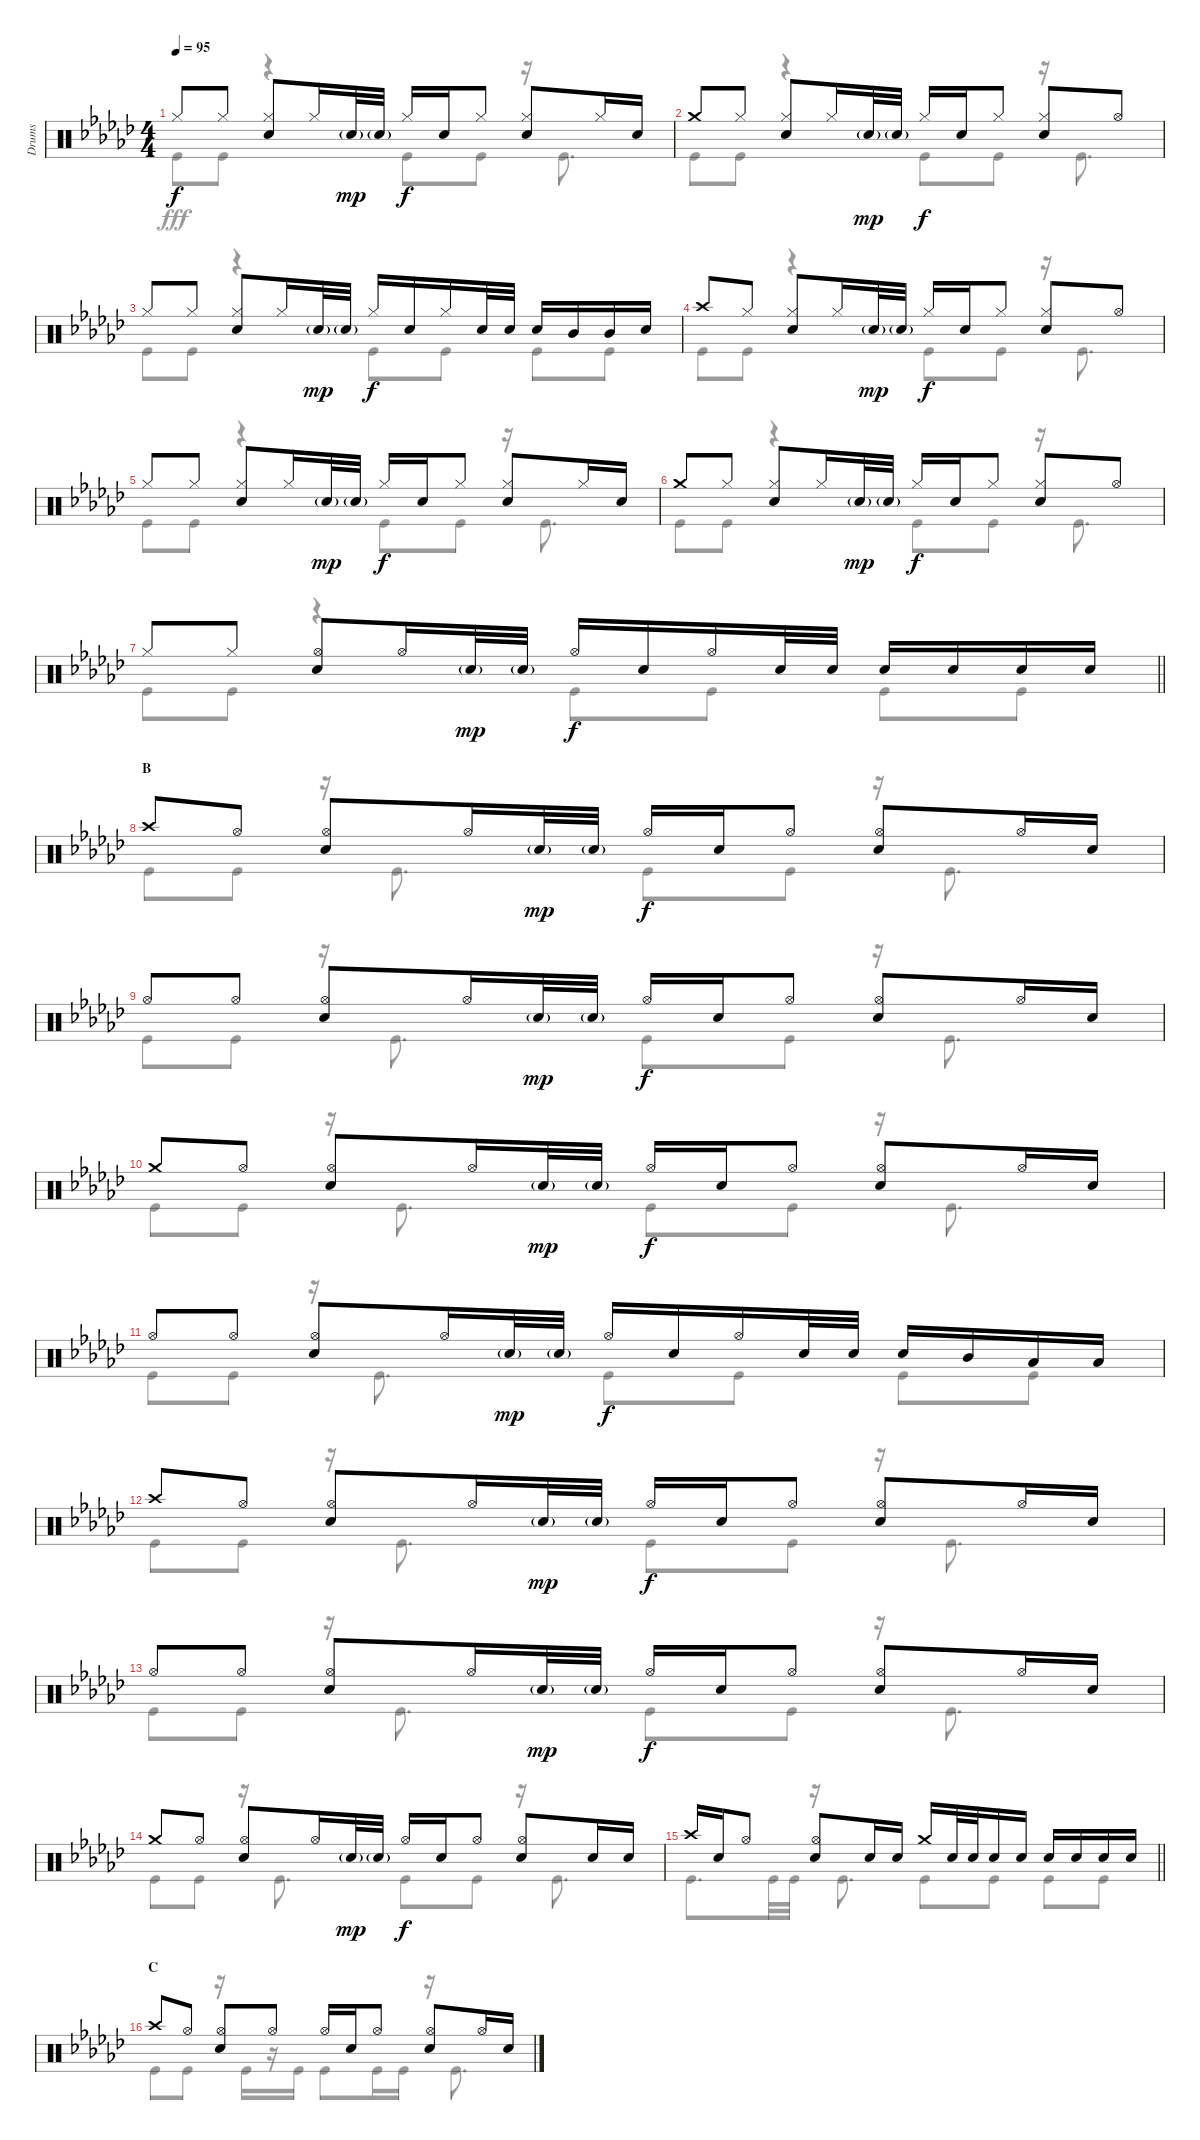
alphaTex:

\track ("Drums" "Drums") {instrument percussion}
\staff {score}
\articulation defaults
\voice
\ts (4 4)
\tempo 95
\clef neutral
\ks gb "Hi-Hat (closed)".8{dy f} "Hi-Hat (closed)".8
("Hi-Hat (closed)" "Snare (hit) 2").8 "Hi-Hat (closed)".16 "Snare (hit) 2"{g}.32{dy mp} "Snare (hit) 2"{g}.32 "Hi-Hat (closed)".16{dy f} "Snare (hit) 2".16 "Hi-Hat (closed)".8 ("Hi-Hat (closed)" "Snare (hit) 2").8 "Hi-Hat (closed)".16 "Snare (hit) 2".16 |
"Crash medium (hit)".8 "Hi-Hat (closed)".8 ("Hi-Hat (closed)" "Snare (hit) 2").8 "Hi-Hat (closed)".16 "Snare (hit) 2"{g}.32{dy mp} "Snare (hit) 2"{g}.32 "Hi-Hat (closed)".16{dy f} "Snare (hit) 2".16 "Hi-Hat (closed)".8 ("Hi-Hat (closed)" "Snare (hit) 2").8 "Hi-Hat (open)".8 |
"Hi-Hat (closed)".8 "Hi-Hat (closed)".8 ("Hi-Hat (closed)" "Snare (hit) 2").8 "Hi-Hat (closed)".16 "Snare (hit) 2"{g}.32{dy mp} "Snare (hit) 2"{g}.32 "Hi-Hat (closed)".16{dy f} "Snare (hit) 2".16 "Hi-Hat (closed)".16 "Snare (hit) 2".32 "Snare (hit) 2".32 "Snare (hit) 2".16 "Mid Tom (hit)".16 "Mid Tom (hit)".16 "Snare (hit) 2".16 |
"Crash high (hit)".8 "Hi-Hat (closed)".8 ("Hi-Hat (closed)" "Snare (hit) 2").8 "Hi-Hat (closed)".16 "Snare (hit) 2"{g}.32{dy mp} "Snare (hit) 2"{g}.32 "Hi-Hat (closed)".16{dy f} "Snare (hit) 2".16 "Hi-Hat (closed)".8 ("Hi-Hat (closed)" "Snare (hit) 2").8 "Hi-Hat (open)".8 |
"Hi-Hat (closed)".8 "Hi-Hat (closed)".8 ("Hi-Hat (closed)" "Snare (hit) 2").8 "Hi-Hat (closed)".16 "Snare (hit) 2"{g}.32{dy mp} "Snare (hit) 2"{g}.32 "Hi-Hat (closed)".16{dy f} "Snare (hit) 2".16 "Hi-Hat (closed)".8 ("Hi-Hat (closed)" "Snare (hit) 2").8 "Hi-Hat (closed)".16 "Snare (hit) 2".16 |
"Crash medium (hit)".8 "Hi-Hat (closed)".8 ("Hi-Hat (closed)" "Snare (hit) 2").8 "Hi-Hat (closed)".16 "Snare (hit) 2"{g}.32{dy mp} "Snare (hit) 2"{g}.32 "Hi-Hat (closed)".16{dy f} "Snare (hit) 2".16 "Hi-Hat (closed)".8 ("Hi-Hat (closed)" "Snare (hit) 2").8 "Hi-Hat (open)".8 |
\barLineRight lightlight "Hi-Hat (closed)".8 "Hi-Hat (closed)".8
("Hi-Hat (open)" "Snare (hit) 2").8 "Hi-Hat (open)".16 "Snare (hit) 2"{g}.32{dy mp} "Snare (hit) 2"{g}.32 "Hi-Hat (open)".16{dy f} "Snare (hit) 2".16 "Hi-Hat (open)".16 "Snare (hit) 2".32 "Snare (hit) 2".32 "Snare (hit) 2".16 "Snare (hit) 2".16 "Snare (hit) 2".16 "Snare (hit) 2".16 |
\section ("" "B")
"Crash high (hit)".8 "Hi-Hat (open)".8 ("Hi-Hat (open)" "Snare (hit) 2").8 "Hi-Hat (open)".16 "Snare (hit) 2"{g}.32{dy mp} "Snare (hit) 2"{g}.32 "Hi-Hat (open)".16{dy f} "Snare (hit) 2".16 "Hi-Hat (open)".8 ("Hi-Hat (open)" "Snare (hit) 2").8 "Hi-Hat (open)".16 "Snare (hit) 2".16 |
"Hi-Hat (open)".8 "Hi-Hat (open)".8 ("Hi-Hat (open)" "Snare (hit) 2").8 "Hi-Hat (open)".16 "Snare (hit) 2"{g}.32{dy mp} "Snare (hit) 2"{g}.32 "Hi-Hat (open)".16{dy f} "Snare (hit) 2".16 "Hi-Hat (open)".8 ("Hi-Hat (open)" "Snare (hit) 2").8 "Hi-Hat (open)".16 "Snare (hit) 2".16 |
"Crash medium (hit)".8 "Hi-Hat (open)".8 ("Hi-Hat (open)" "Snare (hit) 2").8 "Hi-Hat (open)".16 "Snare (hit) 2"{g}.32{dy mp} "Snare (hit) 2"{g}.32 "Hi-Hat (open)".16{dy f} "Snare (hit) 2".16 "Hi-Hat (open)".8 ("Hi-Hat (open)" "Snare (hit) 2").8 "Hi-Hat (open)".16 "Snare (hit) 2".16 |
"Hi-Hat (open)".8 "Hi-Hat (open)".8 ("Hi-Hat (open)" "Snare (hit) 2").8 "Hi-Hat (open)".16 "Snare (hit) 2"{g}.32{dy mp} "Snare (hit) 2"{g}.32 "Hi-Hat (open)".16{dy f} "Snare (hit) 2".16 "Hi-Hat (open)".16 "Snare (hit) 2".32 "Snare (hit) 2".32 "Snare (hit) 2".16 "Mid Tom (hit)".16 "Low Tom (hit)".16 "Low Tom (hit)".16 |
"Crash high (hit)".8 "Hi-Hat (open)".8 ("Hi-Hat (open)" "Snare (hit) 2").8 "Hi-Hat (open)".16 "Snare (hit) 2"{g}.32{dy mp} "Snare (hit) 2"{g}.32 "Hi-Hat (open)".16{dy f} "Snare (hit) 2".16 "Hi-Hat (open)".8 ("Hi-Hat (open)" "Snare (hit) 2").8 "Hi-Hat (open)".16 "Snare (hit) 2".16 |
"Hi-Hat (open)".8 "Hi-Hat (open)".8 ("Hi-Hat (open)" "Snare (hit) 2").8 "Hi-Hat (open)".16 "Snare (hit) 2"{g}.32{dy mp} "Snare (hit) 2"{g}.32 "Hi-Hat (open)".16{dy f} "Snare (hit) 2".16 "Hi-Hat (open)".8 ("Hi-Hat (open)" "Snare (hit) 2").8 "Hi-Hat (open)".16 "Snare (hit) 2".16 |
"Crash medium (hit)".8 "Hi-Hat (open)".8 ("Hi-Hat (open)" "Snare (hit) 2").8 "Hi-Hat (open)".16 "Snare (hit) 2"{g}.32{dy mp} "Snare (hit) 2"{g}.32 "Hi-Hat (open)".16{dy f} "Snare (hit) 2".16 "Hi-Hat (open)".8 ("Hi-Hat (open)" "Snare (hit) 2").8 "Snare (hit) 2".16 "Snare (hit) 2".16 |
\barLineRight lightlight "Crash high (hit)".16 "Snare (hit) 2".16 "Hi-Hat (open)".8
("Hi-Hat (open)" "Snare (hit) 2").8 "Snare (hit) 2".16 "Snare (hit) 2".16 "Crash medium (hit)".16 "Snare (hit) 2".32 "Snare (hit) 2".32 "Snare (hit) 2".16 "Snare (hit) 2".16 "Snare (hit) 2".16 "Snare (hit) 2".16 "Snare (hit) 2".16 "Snare (hit) 2".16 |
\section ("" "C")
"Crash high (hit)".8 "Hi-Hat (open)".8 ("Hi-Hat (open)" "Snare (hit) 2").8 "Hi-Hat (open)".8 "Hi-Hat (open)".16 "Snare (hit) 2".16 "Hi-Hat (open)".8 ("Hi-Hat (open)" "Snare (hit) 2").8 "Hi-Hat (open)".16 "Snare (hit) 2".16
\voice
\clef neutral
\ottava regular
\simile none
\ks gb "Kick (hit)".8{dy fff} "Kick (hit)".8
r.4 "Kick (hit)".8 "Kick (hit)".8 r.16 "Kick (hit)".8{d} |
"Kick (hit)".8 "Kick (hit)".8 r.4 "Kick (hit)".8 "Kick (hit)".8 r.16 "Kick (hit)".8{d} |
"Kick (hit)".8 "Kick (hit)".8 r.4 "Kick (hit)".8 "Kick (hit)".8 "Kick (hit)".8 "Kick (hit)".8 |
"Kick (hit)".8 "Kick (hit)".8 r.4 "Kick (hit)".8 "Kick (hit)".8 r.16 "Kick (hit)".8{d} |
"Kick (hit)".8 "Kick (hit)".8 r.4 "Kick (hit)".8 "Kick (hit)".8 r.16 "Kick (hit)".8{d} |
"Kick (hit)".8 "Kick (hit)".8 r.4 "Kick (hit)".8 "Kick (hit)".8 r.16 "Kick (hit)".8{d} |
\barLineRight lightlight "Kick (hit)".8 "Kick (hit)".8
r.4 "Kick (hit)".8 "Kick (hit)".8 "Kick (hit)".8 "Kick (hit)".8 |
"Kick (hit)".8 "Kick (hit)".8 r.16 "Kick (hit)".8{d} "Kick (hit)".8 "Kick (hit)".8 r.16 "Kick (hit)".8{d} |
"Kick (hit)".8 "Kick (hit)".8 r.16 "Kick (hit)".8{d} "Kick (hit)".8 "Kick (hit)".8 r.16 "Kick (hit)".8{d} |
"Kick (hit)".8 "Kick (hit)".8 r.16 "Kick (hit)".8{d} "Kick (hit)".8 "Kick (hit)".8 r.16 "Kick (hit)".8{d} |
"Kick (hit)".8 "Kick (hit)".8 r.16 "Kick (hit)".8{d} "Kick (hit)".8 "Kick (hit)".8 "Kick (hit)".8 "Kick (hit)".8 |
"Kick (hit)".8 "Kick (hit)".8 r.16 "Kick (hit)".8{d} "Kick (hit)".8 "Kick (hit)".8 r.16 "Kick (hit)".8{d} |
"Kick (hit)".8 "Kick (hit)".8 r.16 "Kick (hit)".8{d} "Kick (hit)".8 "Kick (hit)".8 r.16 "Kick (hit)".8{d} |
"Kick (hit)".8 "Kick (hit)".8 r.16 "Kick (hit)".8{d} "Kick (hit)".8 "Kick (hit)".8 r.16 "Kick (hit)".8{d} |
\barLineRight lightlight "Kick (hit)".8{d} "Kick (hit)".32 "Kick (hit)".32
r.16 "Kick (hit)".8{d} "Kick (hit)".8 "Kick (hit)".8 "Kick (hit)".8 "Kick (hit)".8 |
"Kick (hit)".8 "Kick (hit)".8 r.16 "Kick (hit)".16 r.16 "Kick (hit)".16 "Kick (hit)".8 "Kick (hit)".16 "Kick (hit)".16 r.16 "Kick (hit)".8{d}
